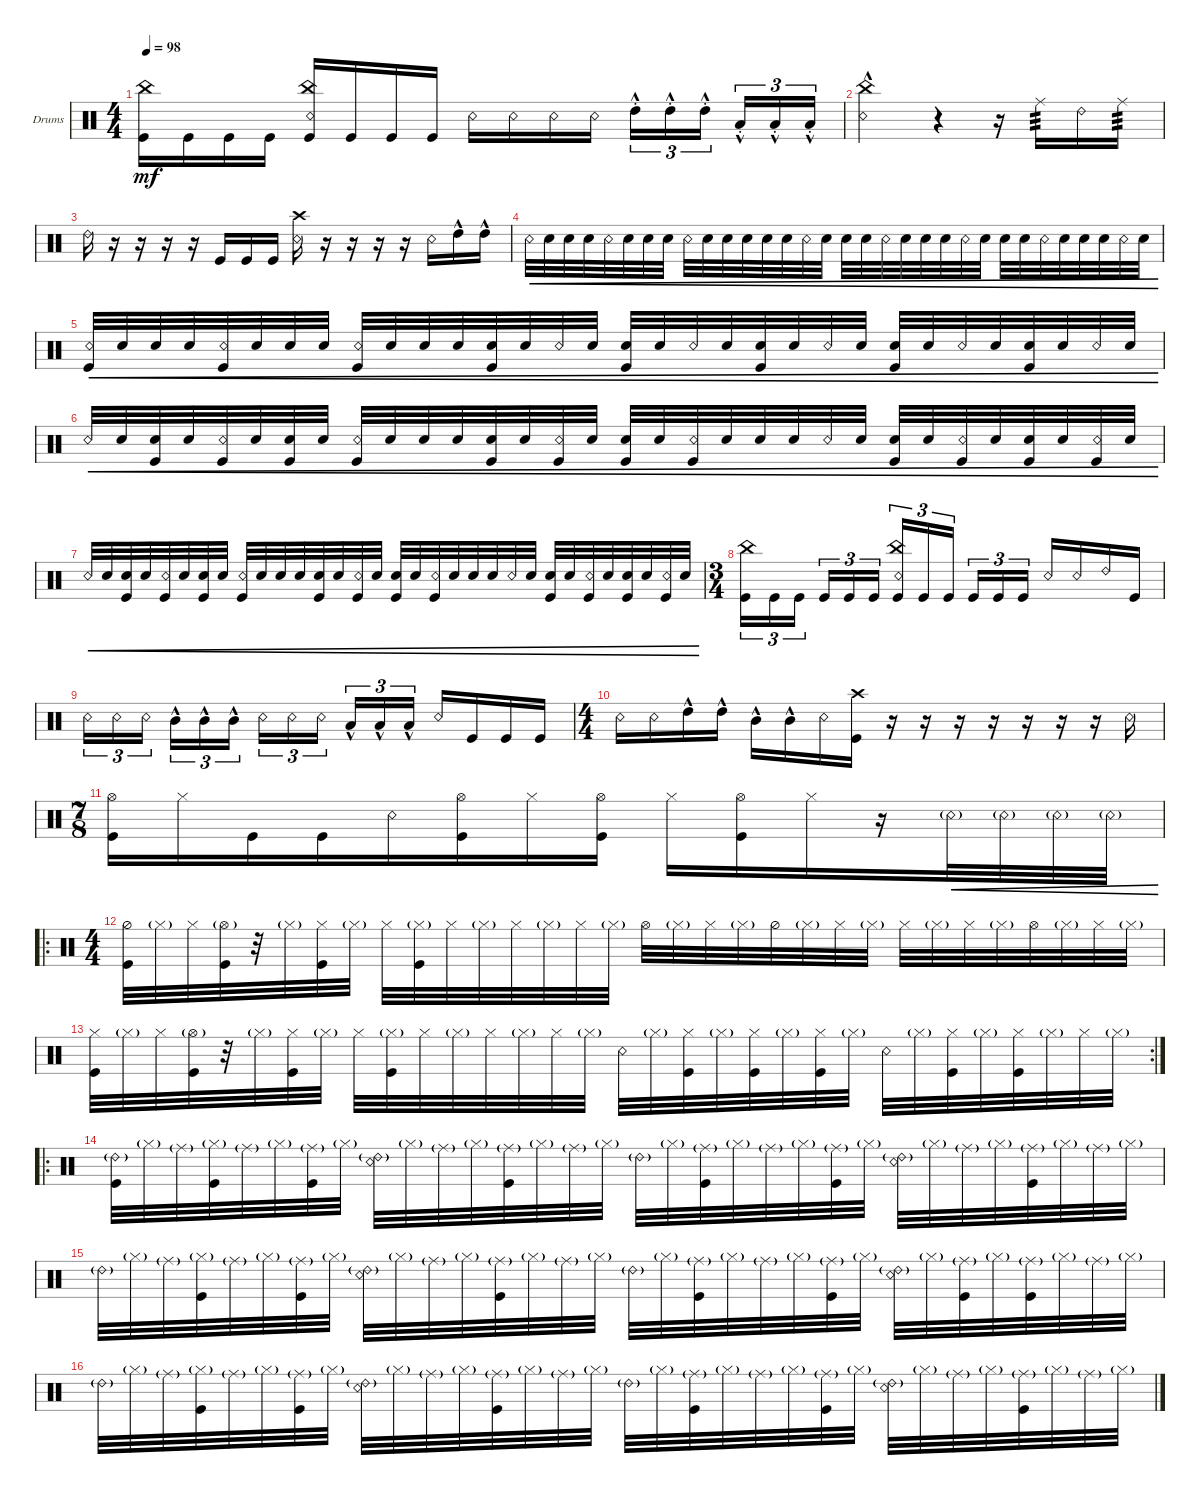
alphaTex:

\defaultSystemsLayout 4
\bracketExtendMode groupsimilarinstruments
\firstSystemTrackNameOrientation horizontal
\otherSystemsTrackNameOrientation horizontal
\track ("Drumkit" "Drums") {instrument percussion}
\staff {score}
\articulation defaults
\ts (4 4)
\tempo 98
\clef neutral
\scale
0.333333
\ks c
("Kick (hit)" "China (hit)").16{dy mf} "Kick (hit)".16 "Kick (hit)".16 "Kick (hit)".16 ("Kick (hit)" "China (hit)" "Snare (rim shot)").16 "Kick (hit)".16 "Kick (hit)".16 "Kick (hit)".16 "Snare (rim shot)".16 "Snare (rim shot)".16 "Snare (rim shot)".16 "Snare (rim shot)".16 "High Tom (hit)"{hac st}.16{tu (3 2)} "High Tom (hit)"{hac st}.16{tu (3 2)} "High Tom (hit)"{hac st}.16{tu (3 2)} "Low Tom (hit)"{hac st}.16{tu (3 2)} "Low Tom (hit)"{hac st}.16{tu (3 2)} "Low Tom (hit)"{hac st}.16{tu (3 2)} |
\scale
0.333333 ("Snare (rim shot)"{hac} "China (hit)").2 r.4 r.16 "Ride (middle)".16{tp 3} "Ride (bell) 2".16 "Ride (middle)".16{tp 3} |
\scale
0.333333 "Ride (bell) 2".16 r.16 r.16 r.16 r.16 "Kick (hit)".16 "Kick (hit)".16 "Kick (hit)".16 ("Snare (rim shot)" "Crash high (hit)").16 r.16 r.16 r.16 r.16 "Snare (rim shot)".16 "High Tom (hit)"{hac}.16 "High Tom (hit)"{hac}.16 |
"Snare (rim shot)".32{cre} "Snare (hit) 2".32{cre} "Snare (hit) 2".32{cre} "Snare (hit) 2".32{cre} "Snare (rim shot)".32{cre} "Snare (hit) 2".32{cre} "Snare (hit) 2".32{cre} "Snare (hit) 2".32{cre} "Snare (rim shot)".32{cre} "Snare (hit) 2".32{cre} "Snare (hit) 2".32{cre} "Snare (hit) 2".32{cre} "Snare (hit) 2".32{cre} "Snare (hit) 2".32{cre} "Snare (rim shot)".32{cre} "Snare (hit) 2".32{cre} "Snare (hit) 2".32{cre} "Snare (hit) 2".32{cre} "Snare (rim shot)".32{cre} "Snare (hit) 2".32{cre} "Snare (hit) 2".32{cre} "Snare (hit) 2".32{cre} "Snare (rim shot)".32{cre} "Snare (hit) 2".32{cre} "Snare (hit) 2".32{cre} "Snare (hit) 2".32{cre} "Snare (rim shot)".32{cre} "Snare (hit) 2".32{cre} "Snare (hit) 2".32{cre} "Snare (hit) 2".32{cre} "Snare (rim shot)".32{cre} "Snare (hit) 2".32{cre} |
("Snare (rim shot)" "Kick (hit)").32{cre} "Snare (hit) 2".32{cre} "Snare (hit) 2".32{cre} "Snare (hit) 2".32{cre} ("Snare (rim shot)" "Kick (hit)").32{cre} "Snare (hit) 2".32{cre} "Snare (hit) 2".32{cre} "Snare (hit) 2".32{cre} ("Snare (rim shot)" "Kick (hit)").32{cre} "Snare (hit) 2".32{cre} "Snare (hit) 2".32{cre} "Snare (hit) 2".32{cre} ("Snare (hit) 2" "Kick (hit)").32{cre} "Snare (hit) 2".32{cre} "Snare (rim shot)".32{cre} "Snare (hit) 2".32{cre} ("Snare (hit) 2" "Kick (hit)").32{cre} "Snare (hit) 2".32{cre} "Snare (rim shot)".32{cre} "Snare (hit) 2".32{cre} ("Snare (hit) 2" "Kick (hit)").32{cre} "Snare (hit) 2".32{cre} "Snare (rim shot)".32{cre} "Snare (hit) 2".32{cre} ("Snare (hit) 2" "Kick (hit)").32{cre} "Snare (hit) 2".32{cre} "Snare (rim shot)".32{cre} "Snare (hit) 2".32{cre} ("Snare (hit) 2" "Kick (hit)").32{cre} "Snare (hit) 2".32{cre} "Snare (rim shot)".32{cre} "Snare (hit) 2".32{cre} |
"Snare (rim shot)".32{cre} "Snare (hit) 2".32{cre} ("Snare (hit) 2" "Kick (hit)").32{cre} "Snare (hit) 2".32{cre} ("Snare (rim shot)" "Kick (hit)").32{cre} "Snare (hit) 2".32{cre} ("Snare (hit) 2" "Kick (hit)").32{cre} "Snare (hit) 2".32{cre} ("Snare (rim shot)" "Kick (hit)").32{cre} "Snare (hit) 2".32{cre} "Snare (hit) 2".32{cre} "Snare (hit) 2".32{cre} ("Snare (hit) 2" "Kick (hit)").32{cre} "Snare (hit) 2".32{cre} ("Snare (rim shot)" "Kick (hit)").32{cre} "Snare (hit) 2".32{cre} ("Snare (hit) 2" "Kick (hit)").32{cre} "Snare (hit) 2".32{cre} ("Snare (rim shot)" "Kick (hit)").32{cre} "Snare (hit) 2".32{cre} "Snare (hit) 2".32{cre} "Snare (hit) 2".32{cre} "Snare (rim shot)".32{cre} "Snare (hit) 2".32{cre} ("Snare (hit) 2" "Kick (hit)").32{cre} "Snare (hit) 2".32{cre} ("Snare (rim shot)" "Kick (hit)").32{cre} "Snare (hit) 2".32{cre} ("Snare (hit) 2" "Kick (hit)").32{cre} "Snare (hit) 2".32{cre} ("Snare (rim shot)" "Kick (hit)").32{cre} "Snare (hit) 2".32{cre} |
"Snare (rim shot)".32{cre} "Snare (hit) 2".32{cre} ("Snare (hit) 2" "Kick (hit)").32{cre} "Snare (hit) 2".32{cre} ("Snare (rim shot)" "Kick (hit)").32{cre} "Snare (hit) 2".32{cre} ("Snare (hit) 2" "Kick (hit)").32{cre} "Snare (hit) 2".32{cre} ("Snare (rim shot)" "Kick (hit)").32{cre} "Snare (hit) 2".32{cre} "Snare (hit) 2".32{cre} "Snare (hit) 2".32{cre} ("Snare (hit) 2" "Kick (hit)").32{cre} "Snare (hit) 2".32{cre} ("Snare (rim shot)" "Kick (hit)").32{cre} "Snare (hit) 2".32{cre} ("Snare (hit) 2" "Kick (hit)").32{cre} "Snare (hit) 2".32{cre} ("Snare (rim shot)" "Kick (hit)").32{cre} "Snare (hit) 2".32{cre} "Snare (hit) 2".32{cre} "Snare (hit) 2".32{cre} "Snare (rim shot)".32{cre} "Snare (hit) 2".32{cre} ("Snare (hit) 2" "Kick (hit)").32{cre} "Snare (hit) 2".32{cre} ("Snare (rim shot)" "Kick (hit)").32{cre} "Snare (hit) 2".32{cre} ("Snare (hit) 2" "Kick (hit)").32{cre} "Snare (hit) 2".32{cre} ("Snare (rim shot)" "Kick (hit)").32{cre} "Snare (hit) 2".32{cre} |
\ts (3 4)
\scale
0.333333 ("Kick (hit)" "China (hit)").16{tu (3 2)} "Kick (hit)".16{tu (3 2)} "Kick (hit)".16{tu (3 2)} "Kick (hit)".16{tu (3 2)} "Kick (hit)".16{tu (3 2)} "Kick (hit)".16{tu (3 2)} ("Kick (hit)" "China (hit)" "Snare (rim shot)").16{tu (3 2)} "Kick (hit)".16{tu (3 2)} "Kick (hit)".16{tu (3 2)} "Kick (hit)".16{tu (3 2)} "Kick (hit)".16{tu (3 2)} "Kick (hit)".16{tu (3 2)} "Snare (rim shot)".16 "Snare (rim shot)".16 "Ride (bell) 2".16 "Kick (hit)".16 |
\scale
0.333333 "Snare (rim shot)".16{tu (3 2)} "Snare (rim shot)".16{tu (3 2)} "Snare (rim shot)".16{tu (3 2)} "Mid Tom (hit)"{hac}.16{tu (3 2)} "Mid Tom (hit)"{hac}.16{tu (3 2)} "Mid Tom (hit)"{hac}.16{tu (3 2)} "Snare (rim shot)".16{tu (3 2)} "Snare (rim shot)".16{tu (3 2)} "Snare (rim shot)".16{tu (3 2)} "Low Tom (hit)"{hac}.16{tu (3 2)} "Low Tom (hit)"{hac}.16{tu (3 2)} "Low Tom (hit)"{hac}.16{tu (3 2)} "Snare (rim shot)".16 "Kick (hit)".16 "Kick (hit)".16 "Kick (hit)".16 |
\ts (4 4)
\scale
0.333333 "Snare (rim shot)".16 "Snare (rim shot)".16 "High Tom (hit)"{hac}.16 "High Tom (hit)"{hac}.16 "Mid Tom (hit)"{hac}.16 "Mid Tom (hit)"{hac}.16 "Snare (rim shot)".16 ("Crash high (hit)" "Kick (hit)").16 r.16 r.16 r.16 r.16 r.16 r.16 r.16 "Snare (rim shot)".16 |
\ts (7 8)
("Kick (hit)" "Hi-Hat (open)").16 "Hi-Hat (closed)".16 "Kick (hit)".16 "Kick (hit)".16 "Snare (rim shot)".16 ("Kick (hit)" "Hi-Hat (open)").16 "Hi-Hat (closed)".16 ("Kick (hit)" "Hi-Hat (open)").16 "Hi-Hat (closed)".16 ("Kick (hit)" "Hi-Hat (open)").16 "Hi-Hat (closed)".16 r.16 "Snare (rim shot)"{g}.32{cre} "Snare (rim shot)"{g}.32{cre} "Snare (rim shot)"{g}.32{cre} "Snare (rim shot)"{g}.32{cre} |
\ro
\ts (4 4)
\scale
0.333333 ("Hi-Hat (half)" "Kick (hit)").32 "Hi-Hat (closed)"{g}.32 "Hi-Hat (closed)".32 ("Hi-Hat (open)"{g} "Kick (hit)").32 r.32 "Hi-Hat (closed)"{g}.32 ("Hi-Hat (closed)" "Kick (hit)").32 "Hi-Hat (closed)"{g}.32 "Hi-Hat (closed)".32 ("Hi-Hat (closed)"{g} "Kick (hit)").32 "Hi-Hat (closed)".32 "Hi-Hat (closed)"{g}.32 "Hi-Hat (closed)".32 "Hi-Hat (closed)"{g}.32 "Hi-Hat (closed)".32 "Hi-Hat (closed)"{g}.32 "Hi-Hat (open)".32 "Hi-Hat (closed)"{g}.32 "Hi-Hat (closed)".32 "Hi-Hat (closed)"{g}.32 "Hi-Hat (half)".32 "Hi-Hat (closed)"{g}.32 "Hi-Hat (closed)".32 "Hi-Hat (closed)"{g}.32 "Hi-Hat (closed)".32 "Hi-Hat (closed)"{g}.32 "Hi-Hat (closed)".32 "Hi-Hat (closed)"{g}.32 "Hi-Hat (open)".32 "Hi-Hat (closed)"{g}.32 "Hi-Hat (closed)".32 "Hi-Hat (closed)"{g}.32 |
\rc 2
\scale
0.333333 ("Hi-Hat (closed)" "Kick (hit)").32 "Hi-Hat (closed)"{g}.32 "Hi-Hat (closed)".32 ("Hi-Hat (open)"{g} "Kick (hit)").32 r.32 "Hi-Hat (closed)"{g}.32 ("Hi-Hat (closed)" "Kick (hit)").32 "Hi-Hat (closed)"{g}.32 "Hi-Hat (closed)".32 ("Hi-Hat (closed)"{g} "Kick (hit)").32 "Hi-Hat (closed)".32 "Hi-Hat (closed)"{g}.32 "Hi-Hat (closed)".32 "Hi-Hat (closed)"{g}.32 "Hi-Hat (closed)".32 "Hi-Hat (closed)"{g}.32 "Snare (rim shot)".32 "Hi-Hat (closed)"{g}.32 ("Hi-Hat (closed)" "Kick (hit)").32 "Hi-Hat (closed)"{g}.32 ("Hi-Hat (closed)" "Kick (hit)").32 "Hi-Hat (closed)"{g}.32 ("Hi-Hat (closed)" "Kick (hit)").32 "Hi-Hat (closed)"{g}.32 "Snare (rim shot)".32 "Hi-Hat (closed)"{g}.32 ("Hi-Hat (closed)" "Kick (hit)").32 "Hi-Hat (closed)"{g}.32 ("Hi-Hat (closed)" "Kick (hit)").32 "Hi-Hat (closed)"{g}.32 "Hi-Hat (closed)".32 "Hi-Hat (closed)"{g}.32 |
\ro
\scale
0.333333 ("Ride (bell) 2"{g} "Kick (hit)").32 "Hi-Hat (closed)"{g}.32 "Ride (middle)"{g}.32 ("Hi-Hat (closed)"{g} "Kick (hit)").32 "Ride (middle)"{g}.32 "Hi-Hat (closed)"{g}.32 ("Ride (middle)"{g} "Kick (hit)").32 "Hi-Hat (closed)"{g}.32 ("Ride (bell) 2"{g} "Snare (rim shot)").32 "Hi-Hat (closed)"{g}.32 "Ride (middle)"{g}.32 "Hi-Hat (closed)"{g}.32 ("Ride (middle)"{g} "Kick (hit)").32 "Hi-Hat (closed)"{g}.32 "Ride (middle)"{g}.32 "Hi-Hat (closed)"{g}.32 "Ride (bell) 2"{g}.32 "Hi-Hat (closed)"{g}.32 ("Ride (middle)"{g} "Kick (hit)").32 "Hi-Hat (closed)"{g}.32 "Ride (middle)"{g}.32 "Hi-Hat (closed)"{g}.32 ("Ride (middle)"{g} "Kick (hit)").32 "Hi-Hat (closed)"{g}.32 ("Ride (bell) 2"{g} "Snare (rim shot)").32 "Hi-Hat (closed)"{g}.32 "Ride (middle)"{g}.32 "Hi-Hat (closed)"{g}.32 ("Ride (middle)"{g} "Kick (hit)").32 "Hi-Hat (closed)"{g}.32 "Ride (middle)"{g}.32 "Hi-Hat (closed)"{g}.32 |
\scale
0.333333 "Ride (bell) 2"{g}.32 "Hi-Hat (closed)"{g}.32 "Ride (middle)"{g}.32 ("Hi-Hat (closed)"{g} "Kick (hit)").32 "Ride (middle)"{g}.32 "Hi-Hat (closed)"{g}.32 ("Ride (middle)"{g} "Kick (hit)").32 "Hi-Hat (closed)"{g}.32 ("Ride (bell) 2"{g} "Snare (rim shot)").32 "Hi-Hat (closed)"{g}.32 "Ride (middle)"{g}.32 "Hi-Hat (closed)"{g}.32 ("Ride (middle)"{g} "Kick (hit)").32 "Hi-Hat (closed)"{g}.32 "Ride (middle)"{g}.32 "Hi-Hat (closed)"{g}.32 "Ride (bell) 2"{g}.32 "Hi-Hat (closed)"{g}.32 ("Ride (middle)"{g} "Kick (hit)").32 "Hi-Hat (closed)"{g}.32 "Ride (middle)"{g}.32 "Hi-Hat (closed)"{g}.32 ("Ride (middle)"{g} "Kick (hit)").32 "Hi-Hat (closed)"{g}.32 ("Ride (bell) 2"{g} "Snare (rim shot)").32 "Hi-Hat (closed)"{g}.32 ("Ride (middle)"{g} "Kick (hit)").32 "Hi-Hat (closed)"{g}.32 ("Ride (middle)"{g} "Kick (hit)").32 "Hi-Hat (closed)"{g}.32 "Ride (middle)"{g}.32 "Hi-Hat (closed)"{g}.32 |
\scale
0.333333 "Ride (bell) 2"{g}.32 "Hi-Hat (closed)"{g}.32 "Ride (middle)"{g}.32 ("Hi-Hat (closed)"{g} "Kick (hit)").32 "Ride (middle)"{g}.32 "Hi-Hat (closed)"{g}.32 ("Ride (middle)"{g} "Kick (hit)").32 "Hi-Hat (closed)"{g}.32 ("Ride (bell) 2"{g} "Snare (rim shot)").32 "Hi-Hat (closed)"{g}.32 "Ride (middle)"{g}.32 "Hi-Hat (closed)"{g}.32 ("Ride (middle)"{g} "Kick (hit)").32 "Hi-Hat (closed)"{g}.32 "Ride (middle)"{g}.32 "Hi-Hat (closed)"{g}.32 "Ride (bell) 2"{g}.32 "Hi-Hat (closed)"{g}.32 ("Ride (middle)"{g} "Kick (hit)").32 "Hi-Hat (closed)"{g}.32 "Ride (middle)"{g}.32 "Hi-Hat (closed)"{g}.32 ("Ride (middle)"{g} "Kick (hit)").32 "Hi-Hat (closed)"{g}.32 ("Ride (bell) 2"{g} "Snare (rim shot)").32 "Hi-Hat (closed)"{g}.32 "Ride (middle)"{g}.32 "Hi-Hat (closed)"{g}.32 ("Ride (middle)"{g} "Kick (hit)").32 "Hi-Hat (closed)"{g}.32 "Ride (middle)"{g}.32 "Hi-Hat (closed)"{g}.32
